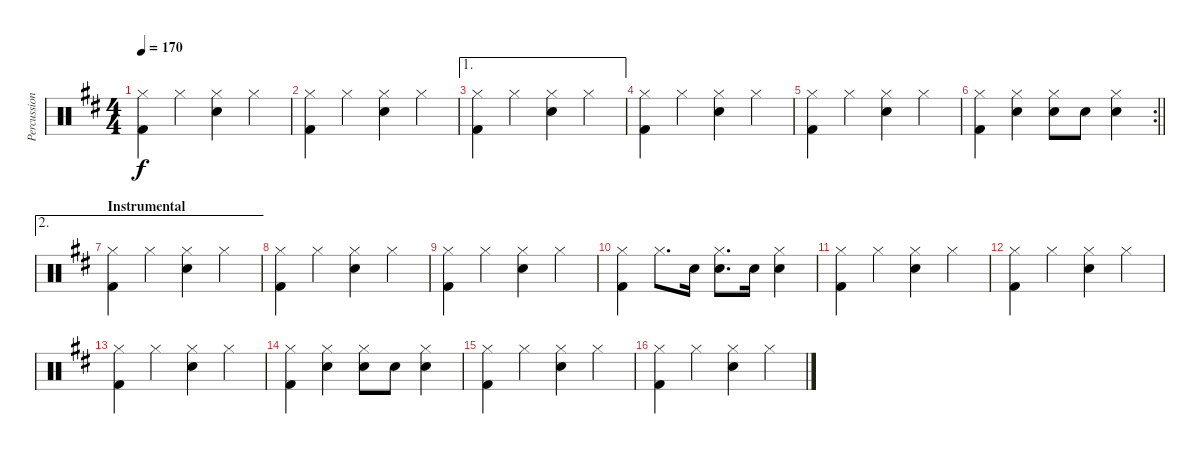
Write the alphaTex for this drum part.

\track ("Percussion" "Percussion") {instrument percussion}
\staff {score}
\articulation defaults
\ts (4 4)
\tempo 170
\clef neutral
\ks d
("Hi-Hat (closed)" "Kick (hit) 2").4{dy f} "Hi-Hat (closed)".4 ("Hi-Hat (closed)" "Snare (hit) 2").4 "Hi-Hat (closed)".4 |
("Hi-Hat (closed)" "Kick (hit) 2").4 "Hi-Hat (closed)".4 ("Hi-Hat (closed)" "Snare (hit) 2").4 "Hi-Hat (closed)".4 |
\ae 1
("Hi-Hat (closed)" "Kick (hit) 2").4 "Hi-Hat (closed)".4 ("Hi-Hat (closed)" "Snare (hit) 2").4 "Hi-Hat (closed)".4 |
("Hi-Hat (closed)" "Kick (hit) 2").4 "Hi-Hat (closed)".4 ("Hi-Hat (closed)" "Snare (hit) 2").4 "Hi-Hat (closed)".4 |
("Hi-Hat (closed)" "Kick (hit) 2").4 "Hi-Hat (closed)".4 ("Hi-Hat (closed)" "Snare (hit) 2").4 "Hi-Hat (closed)".4 |
\rc 2
\barLineRight lightlight
("Hi-Hat (closed)" "Kick (hit) 2").4 ("Hi-Hat (closed)" "Snare (hit) 2").4 ("Hi-Hat (closed)" "Snare (hit) 2").8 "Snare (hit) 2".8 ("Hi-Hat (closed)" "Snare (hit) 2").4 |
\ae 2
\section ("" "Instrumental")
("Hi-Hat (closed)" "Kick (hit) 2").4 "Hi-Hat (closed)".4 ("Hi-Hat (closed)" "Snare (hit) 2").4 "Hi-Hat (closed)".4 |
("Hi-Hat (closed)" "Kick (hit) 2").4 "Hi-Hat (closed)".4 ("Hi-Hat (closed)" "Snare (hit) 2").4 "Hi-Hat (closed)".4 |
("Hi-Hat (closed)" "Kick (hit) 2").4 "Hi-Hat (closed)".4 ("Hi-Hat (closed)" "Snare (hit) 2").4 "Hi-Hat (closed)".4 |
("Hi-Hat (closed)" "Kick (hit) 2").4 "Hi-Hat (closed)".8{d} "Snare (hit) 2".16 ("Hi-Hat (closed)" "Snare (hit) 2").8{d} "Snare (hit) 2".16 ("Hi-Hat (closed)" "Snare (hit) 2").4 |
("Hi-Hat (closed)" "Kick (hit) 2").4 "Hi-Hat (closed)".4 ("Hi-Hat (closed)" "Snare (hit) 2").4 "Hi-Hat (closed)".4 |
("Hi-Hat (closed)" "Kick (hit) 2").4 "Hi-Hat (closed)".4 ("Hi-Hat (closed)" "Snare (hit) 2").4 "Hi-Hat (closed)".4 |
("Hi-Hat (closed)" "Kick (hit) 2").4 "Hi-Hat (closed)".4 ("Hi-Hat (closed)" "Snare (hit) 2").4 "Hi-Hat (closed)".4 |
("Hi-Hat (closed)" "Kick (hit) 2").4 ("Hi-Hat (closed)" "Snare (hit) 2").4 ("Hi-Hat (closed)" "Snare (hit) 2").8 "Snare (hit) 2".8 ("Hi-Hat (closed)" "Snare (hit) 2").4 |
("Hi-Hat (closed)" "Kick (hit) 2").4 "Hi-Hat (closed)".4 ("Hi-Hat (closed)" "Snare (hit) 2").4 "Hi-Hat (closed)".4 |
("Hi-Hat (closed)" "Kick (hit) 2").4 "Hi-Hat (closed)".4 ("Hi-Hat (closed)" "Snare (hit) 2").4 "Hi-Hat (closed)".4
